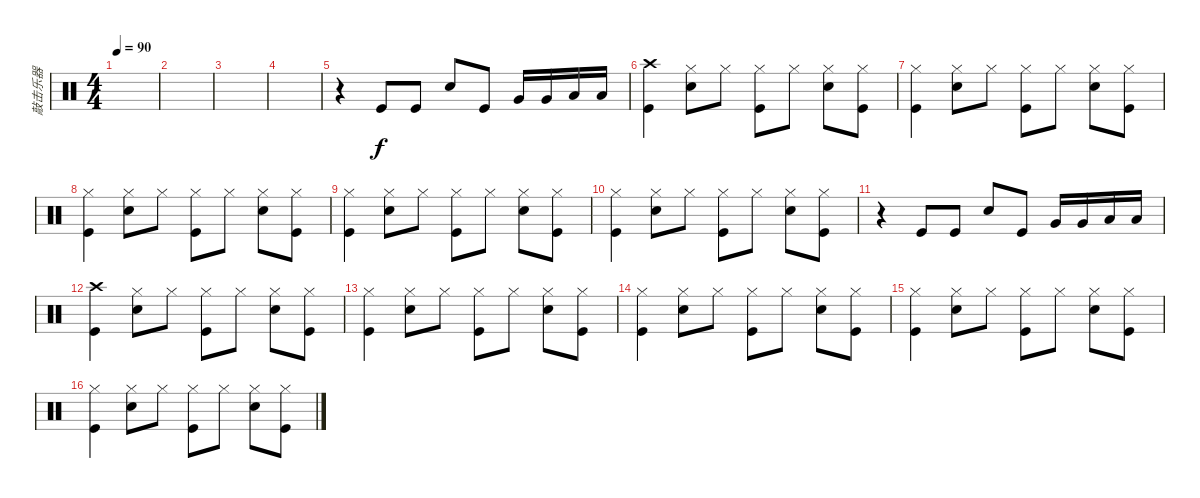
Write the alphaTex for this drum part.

\track ("敲击乐器" "敲击乐器") {instrument percussion}
\staff {score}
\articulation defaults
\ts (4 4)
\tempo 90
\clef neutral
\ks c
|
|
|
|
r.4 "Kick (hit)".8 "Kick (hit)".8 "Snare (hit) 2".8 "Kick (hit)".8 "Very Low Tom (hit)".16 "Very Low Tom (hit)".16 "Low Floor Tom (hit)".16 "Low Floor Tom (hit)".16 |
("Crash high (hit)" "Kick (hit)").4 ("Hi-Hat (closed)" "Snare (hit) 2").8 "Hi-Hat (closed)".8 ("Hi-Hat (closed)" "Kick (hit)").8 "Hi-Hat (closed)".8 ("Hi-Hat (closed)" "Snare (hit) 2").8 ("Hi-Hat (closed)" "Kick (hit)").8 |
("Hi-Hat (closed)" "Kick (hit)").4 ("Hi-Hat (closed)" "Snare (hit) 2").8 "Hi-Hat (closed)".8 ("Hi-Hat (closed)" "Kick (hit)").8 "Hi-Hat (closed)".8 ("Hi-Hat (closed)" "Snare (hit) 2").8 ("Hi-Hat (closed)" "Kick (hit)").8 |
("Hi-Hat (closed)" "Kick (hit)").4 ("Hi-Hat (closed)" "Snare (hit) 2").8 "Hi-Hat (closed)".8 ("Hi-Hat (closed)" "Kick (hit)").8 "Hi-Hat (closed)".8 ("Hi-Hat (closed)" "Snare (hit) 2").8 ("Hi-Hat (closed)" "Kick (hit)").8 |
("Hi-Hat (closed)" "Kick (hit)").4 ("Hi-Hat (closed)" "Snare (hit) 2").8 "Hi-Hat (closed)".8 ("Hi-Hat (closed)" "Kick (hit)").8 "Hi-Hat (closed)".8 ("Hi-Hat (closed)" "Snare (hit) 2").8 ("Hi-Hat (closed)" "Kick (hit)").8 |
("Hi-Hat (closed)" "Kick (hit)").4 ("Hi-Hat (closed)" "Snare (hit) 2").8 "Hi-Hat (closed)".8 ("Hi-Hat (closed)" "Kick (hit)").8 "Hi-Hat (closed)".8 ("Hi-Hat (closed)" "Snare (hit) 2").8 ("Hi-Hat (closed)" "Kick (hit)").8 |
r.4 "Kick (hit)".8 "Kick (hit)".8 "Snare (hit) 2".8 "Kick (hit)".8 "Very Low Tom (hit)".16 "Very Low Tom (hit)".16 "Low Floor Tom (hit)".16 "Low Floor Tom (hit)".16 |
("Crash high (hit)" "Kick (hit)").4 ("Hi-Hat (closed)" "Snare (hit) 2").8 "Hi-Hat (closed)".8 ("Hi-Hat (closed)" "Kick (hit)").8 "Hi-Hat (closed)".8 ("Hi-Hat (closed)" "Snare (hit) 2").8 ("Hi-Hat (closed)" "Kick (hit)").8 |
("Hi-Hat (closed)" "Kick (hit)").4 ("Hi-Hat (closed)" "Snare (hit) 2").8 "Hi-Hat (closed)".8 ("Hi-Hat (closed)" "Kick (hit)").8 "Hi-Hat (closed)".8 ("Hi-Hat (closed)" "Snare (hit) 2").8 ("Hi-Hat (closed)" "Kick (hit)").8 |
("Hi-Hat (closed)" "Kick (hit)").4 ("Hi-Hat (closed)" "Snare (hit) 2").8 "Hi-Hat (closed)".8 ("Hi-Hat (closed)" "Kick (hit)").8 "Hi-Hat (closed)".8 ("Hi-Hat (closed)" "Snare (hit) 2").8 ("Hi-Hat (closed)" "Kick (hit)").8 |
("Hi-Hat (closed)" "Kick (hit)").4 ("Hi-Hat (closed)" "Snare (hit) 2").8 "Hi-Hat (closed)".8 ("Hi-Hat (closed)" "Kick (hit)").8 "Hi-Hat (closed)".8 ("Hi-Hat (closed)" "Snare (hit) 2").8 ("Hi-Hat (closed)" "Kick (hit)").8 |
("Hi-Hat (closed)" "Kick (hit)").4 ("Hi-Hat (closed)" "Snare (hit) 2").8 "Hi-Hat (closed)".8 ("Hi-Hat (closed)" "Kick (hit)").8 "Hi-Hat (closed)".8 ("Hi-Hat (closed)" "Snare (hit) 2").8 ("Hi-Hat (closed)" "Kick (hit)").8
